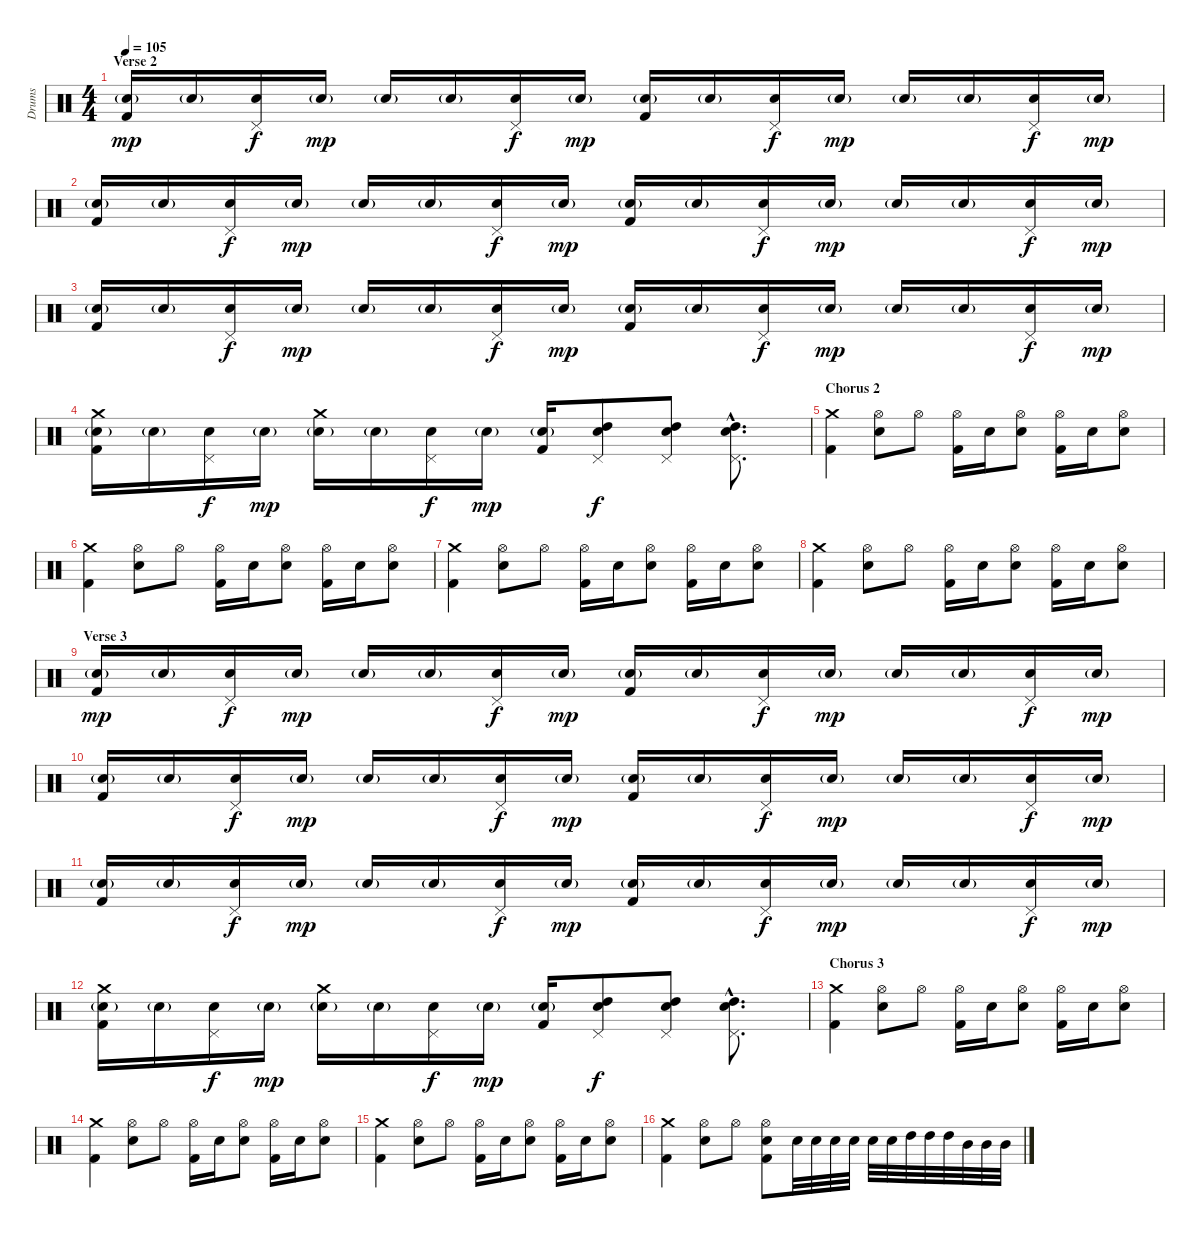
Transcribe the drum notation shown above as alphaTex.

\track ("Drums" "Drums") {instrument percussion}
\staff {score}
\articulation defaults
\ts (4 4)
\section ("" "Verse 2")
\tempo 105
\clef neutral
\ks c
("Snare (hit) 2"{g} "Kick (hit) 2").16{dy mp} "Snare (hit) 2"{g}.16 ("Pedal Hi-Hat (hit)" "Snare (hit) 2").16{dy f} "Snare (hit) 2"{g}.16{dy mp} "Snare (hit) 2"{g}.16 "Snare (hit) 2"{g}.16 ("Pedal Hi-Hat (hit)" "Snare (hit) 2").16{dy f} "Snare (hit) 2"{g}.16{dy mp} ("Snare (hit) 2"{g} "Kick (hit) 2").16 "Snare (hit) 2"{g}.16 ("Pedal Hi-Hat (hit)" "Snare (hit) 2").16{dy f} "Snare (hit) 2"{g}.16{dy mp} "Snare (hit) 2"{g}.16 "Snare (hit) 2"{g}.16 ("Pedal Hi-Hat (hit)" "Snare (hit) 2").16{dy f} "Snare (hit) 2"{g}.16{dy mp} |
("Snare (hit) 2"{g} "Kick (hit) 2").16 "Snare (hit) 2"{g}.16 ("Pedal Hi-Hat (hit)" "Snare (hit) 2").16{dy f} "Snare (hit) 2"{g}.16{dy mp} "Snare (hit) 2"{g}.16 "Snare (hit) 2"{g}.16 ("Pedal Hi-Hat (hit)" "Snare (hit) 2").16{dy f} "Snare (hit) 2"{g}.16{dy mp} ("Snare (hit) 2"{g} "Kick (hit) 2").16 "Snare (hit) 2"{g}.16 ("Pedal Hi-Hat (hit)" "Snare (hit) 2").16{dy f} "Snare (hit) 2"{g}.16{dy mp} "Snare (hit) 2"{g}.16 "Snare (hit) 2"{g}.16 ("Pedal Hi-Hat (hit)" "Snare (hit) 2").16{dy f} "Snare (hit) 2"{g}.16{dy mp} |
("Snare (hit) 2"{g} "Kick (hit) 2").16 "Snare (hit) 2"{g}.16 ("Pedal Hi-Hat (hit)" "Snare (hit) 2").16{dy f} "Snare (hit) 2"{g}.16{dy mp} "Snare (hit) 2"{g}.16 "Snare (hit) 2"{g}.16 ("Pedal Hi-Hat (hit)" "Snare (hit) 2").16{dy f} "Snare (hit) 2"{g}.16{dy mp} ("Snare (hit) 2"{g} "Kick (hit) 2").16 "Snare (hit) 2"{g}.16 ("Pedal Hi-Hat (hit)" "Snare (hit) 2").16{dy f} "Snare (hit) 2"{g}.16{dy mp} "Snare (hit) 2"{g}.16 "Snare (hit) 2"{g}.16 ("Pedal Hi-Hat (hit)" "Snare (hit) 2").16{dy f} "Snare (hit) 2"{g}.16{dy mp} |
("Crash medium (hit)" "Snare (hit) 2"{g} "Kick (hit) 2").16 "Snare (hit) 2"{g}.16 ("Pedal Hi-Hat (hit)" "Snare (hit) 2").16{dy f} "Snare (hit) 2"{g}.16{dy mp} ("Crash medium (hit)" "Snare (hit) 2"{g}).16 "Snare (hit) 2"{g}.16 ("Pedal Hi-Hat (hit)" "Snare (hit) 2").16{dy f} "Snare (hit) 2"{g}.16{dy mp} ("Snare (hit) 2"{g} "Kick (hit) 2").16 ("Pedal Hi-Hat (hit)" "High Tom (hit)" "Snare (hit) 2").8{dy f} ("Pedal Hi-Hat (hit)" "High Tom (hit)" "Snare (hit) 2").8 ("Pedal Hi-Hat (hit)"{hac} "High Tom (hit)"{hac} "Snare (hit) 2"{hac}).8{d} |
\section ("" "Chorus 2")
("Crash medium (hit)" "Kick (hit) 2").4 ("Hi-Hat (open)" "Snare (hit) 2").8 "Hi-Hat (open)".8 ("Hi-Hat (open)" "Kick (hit) 2").16 "Snare (hit) 2".16 ("Hi-Hat (open)" "Snare (hit) 2").8 ("Hi-Hat (open)" "Kick (hit) 2").16 "Snare (hit) 2".16 ("Hi-Hat (open)" "Snare (hit) 2").8 |
("Crash medium (hit)" "Kick (hit) 2").4 ("Hi-Hat (open)" "Snare (hit) 2").8 "Hi-Hat (open)".8 ("Hi-Hat (open)" "Kick (hit) 2").16 "Snare (hit) 2".16 ("Hi-Hat (open)" "Snare (hit) 2").8 ("Hi-Hat (open)" "Kick (hit) 2").16 "Snare (hit) 2".16 ("Hi-Hat (open)" "Snare (hit) 2").8 |
("Crash medium (hit)" "Kick (hit) 2").4 ("Hi-Hat (open)" "Snare (hit) 2").8 "Hi-Hat (open)".8 ("Hi-Hat (open)" "Kick (hit) 2").16 "Snare (hit) 2".16 ("Hi-Hat (open)" "Snare (hit) 2").8 ("Hi-Hat (open)" "Kick (hit) 2").16 "Snare (hit) 2".16 ("Hi-Hat (open)" "Snare (hit) 2").8 |
("Crash medium (hit)" "Kick (hit) 2").4 ("Hi-Hat (open)" "Snare (hit) 2").8 "Hi-Hat (open)".8 ("Hi-Hat (open)" "Kick (hit) 2").16 "Snare (hit) 2".16 ("Hi-Hat (open)" "Snare (hit) 2").8 ("Hi-Hat (open)" "Kick (hit) 2").16 "Snare (hit) 2".16 ("Hi-Hat (open)" "Snare (hit) 2").8 |
\section ("" "Verse 3")
("Snare (hit) 2"{g} "Kick (hit) 2").16{dy mp} "Snare (hit) 2"{g}.16 ("Pedal Hi-Hat (hit)" "Snare (hit) 2").16{dy f} "Snare (hit) 2"{g}.16{dy mp} "Snare (hit) 2"{g}.16 "Snare (hit) 2"{g}.16 ("Pedal Hi-Hat (hit)" "Snare (hit) 2").16{dy f} "Snare (hit) 2"{g}.16{dy mp} ("Snare (hit) 2"{g} "Kick (hit) 2").16 "Snare (hit) 2"{g}.16 ("Pedal Hi-Hat (hit)" "Snare (hit) 2").16{dy f} "Snare (hit) 2"{g}.16{dy mp} "Snare (hit) 2"{g}.16 "Snare (hit) 2"{g}.16 ("Pedal Hi-Hat (hit)" "Snare (hit) 2").16{dy f} "Snare (hit) 2"{g}.16{dy mp} |
("Snare (hit) 2"{g} "Kick (hit) 2").16 "Snare (hit) 2"{g}.16 ("Pedal Hi-Hat (hit)" "Snare (hit) 2").16{dy f} "Snare (hit) 2"{g}.16{dy mp} "Snare (hit) 2"{g}.16 "Snare (hit) 2"{g}.16 ("Pedal Hi-Hat (hit)" "Snare (hit) 2").16{dy f} "Snare (hit) 2"{g}.16{dy mp} ("Snare (hit) 2"{g} "Kick (hit) 2").16 "Snare (hit) 2"{g}.16 ("Pedal Hi-Hat (hit)" "Snare (hit) 2").16{dy f} "Snare (hit) 2"{g}.16{dy mp} "Snare (hit) 2"{g}.16 "Snare (hit) 2"{g}.16 ("Pedal Hi-Hat (hit)" "Snare (hit) 2").16{dy f} "Snare (hit) 2"{g}.16{dy mp} |
("Snare (hit) 2"{g} "Kick (hit) 2").16 "Snare (hit) 2"{g}.16 ("Pedal Hi-Hat (hit)" "Snare (hit) 2").16{dy f} "Snare (hit) 2"{g}.16{dy mp} "Snare (hit) 2"{g}.16 "Snare (hit) 2"{g}.16 ("Pedal Hi-Hat (hit)" "Snare (hit) 2").16{dy f} "Snare (hit) 2"{g}.16{dy mp} ("Snare (hit) 2"{g} "Kick (hit) 2").16 "Snare (hit) 2"{g}.16 ("Pedal Hi-Hat (hit)" "Snare (hit) 2").16{dy f} "Snare (hit) 2"{g}.16{dy mp} "Snare (hit) 2"{g}.16 "Snare (hit) 2"{g}.16 ("Pedal Hi-Hat (hit)" "Snare (hit) 2").16{dy f} "Snare (hit) 2"{g}.16{dy mp} |
("Crash medium (hit)" "Snare (hit) 2"{g} "Kick (hit) 2").16 "Snare (hit) 2"{g}.16 ("Pedal Hi-Hat (hit)" "Snare (hit) 2").16{dy f} "Snare (hit) 2"{g}.16{dy mp} ("Crash medium (hit)" "Snare (hit) 2"{g}).16 "Snare (hit) 2"{g}.16 ("Pedal Hi-Hat (hit)" "Snare (hit) 2").16{dy f} "Snare (hit) 2"{g}.16{dy mp} ("Snare (hit) 2"{g} "Kick (hit) 2").16 ("Pedal Hi-Hat (hit)" "High Tom (hit)" "Snare (hit) 2").8{dy f} ("Pedal Hi-Hat (hit)" "High Tom (hit)" "Snare (hit) 2").8 ("Pedal Hi-Hat (hit)"{hac} "High Tom (hit)"{hac} "Snare (hit) 2"{hac}).8{d} |
\section ("" "Chorus 3")
("Crash medium (hit)" "Kick (hit) 2").4 ("Hi-Hat (open)" "Snare (hit) 2").8 "Hi-Hat (open)".8 ("Hi-Hat (open)" "Kick (hit) 2").16 "Snare (hit) 2".16 ("Hi-Hat (open)" "Snare (hit) 2").8 ("Hi-Hat (open)" "Kick (hit) 2").16 "Snare (hit) 2".16 ("Hi-Hat (open)" "Snare (hit) 2").8 |
("Crash medium (hit)" "Kick (hit) 2").4 ("Hi-Hat (open)" "Snare (hit) 2").8 "Hi-Hat (open)".8 ("Hi-Hat (open)" "Kick (hit) 2").16 "Snare (hit) 2".16 ("Hi-Hat (open)" "Snare (hit) 2").8 ("Hi-Hat (open)" "Kick (hit) 2").16 "Snare (hit) 2".16 ("Hi-Hat (open)" "Snare (hit) 2").8 |
("Crash medium (hit)" "Kick (hit) 2").4 ("Hi-Hat (open)" "Snare (hit) 2").8 "Hi-Hat (open)".8 ("Hi-Hat (open)" "Kick (hit) 2").16 "Snare (hit) 2".16 ("Hi-Hat (open)" "Snare (hit) 2").8 ("Hi-Hat (open)" "Kick (hit) 2").16 "Snare (hit) 2".16 ("Hi-Hat (open)" "Snare (hit) 2").8 |
("Crash medium (hit)" "Kick (hit) 2").4 ("Hi-Hat (open)" "Snare (hit) 2").8 "Hi-Hat (open)".8 ("Hi-Hat (open)" "Snare (hit) 2" "Kick (hit) 2").8 "Snare (hit) 2".32 "Snare (hit) 2".32 "Snare (hit) 2".32 "Snare (hit) 2".32 "Snare (hit) 2".32 "Snare (hit) 2".32 "High Tom (hit)".32 "High Tom (hit)".32 "High Tom (hit)".32 "Mid Tom (hit)".32 "Mid Tom (hit)".32 "Mid Tom (hit)".32
